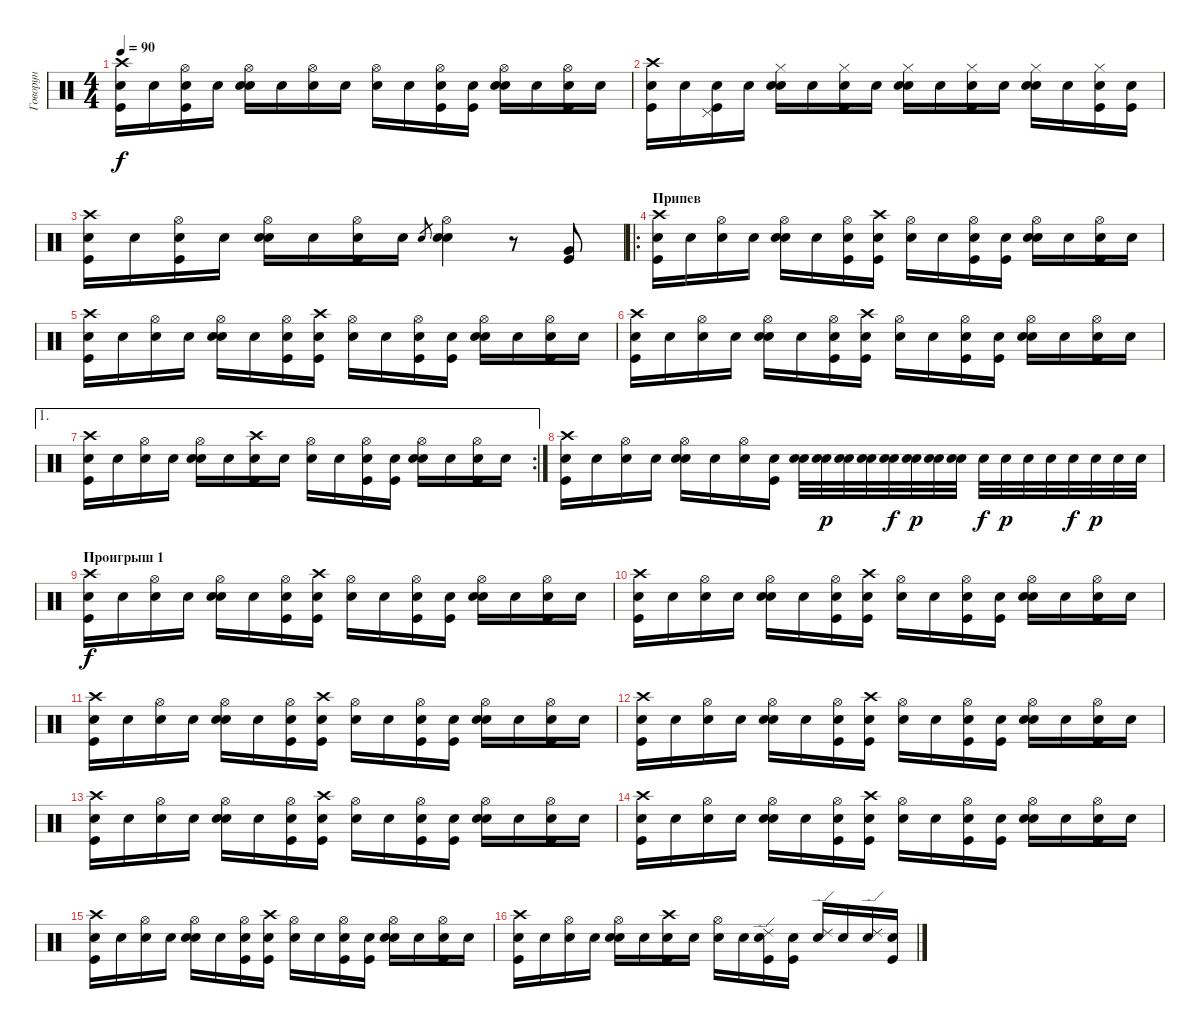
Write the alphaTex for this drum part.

\track ("Говорун" "Говорун") {instrument percussion}
\staff {score}
\articulation defaults
\ts (4 4)
\tempo 90
\clef neutral
\ks c
("Snare (hit)"{x} "Kick (hit)" "Crash high (hit)").16{dy f} "Snare (hit)"{x}.16 ("Snare (hit)"{x} "Kick (hit)" "Hi-Hat (open)").16 "Snare (hit)"{x}.16 ("Snare (hit)"{x} "Snare (hit) 2" "Hi-Hat (open)").16 "Snare (hit)"{x}.16 ("Snare (hit)"{x} "Hi-Hat (open)").16 "Snare (hit)"{x}.16 ("Snare (hit)"{x} "Hi-Hat (open)").16 "Snare (hit)"{x}.16 ("Snare (hit)"{x} "Kick (hit)" "Hi-Hat (open)").16 ("Snare (hit)"{x} "Kick (hit)").16 ("Snare (hit)"{x} "Snare (hit) 2" "Hi-Hat (open)").16 "Snare (hit)"{x}.16 ("Snare (hit)"{x} "Kick (hit)" "Hi-Hat (open)").16 "Snare (hit)"{x}.16 |
("Snare (hit)"{x} "Kick (hit)" "Crash high (hit)").16 "Snare (hit)"{x}.16 ("Snare (hit)"{x} "Kick (hit)" "Pedal Hi-Hat (hit)").16 "Snare (hit)"{x}.16 ("Snare (hit)"{x} "Snare (hit) 2" "Hi-Hat (closed)").16 "Snare (hit)"{x}.16 ("Snare (hit)"{x} "Kick (hit)" "Hi-Hat (closed)").16 "Snare (hit)"{x}.16 ("Snare (hit)"{x} "Snare (hit) 2" "Hi-Hat (closed)").16 "Snare (hit)"{x}.16 ("Snare (hit)"{x} "Kick (hit)" "Hi-Hat (closed)").16 "Snare (hit)"{x}.16 ("Snare (hit)"{x} "Snare (hit) 2" "Hi-Hat (closed)").16 "Snare (hit)"{x}.16 ("Snare (hit)"{x} "Kick (hit)" "Hi-Hat (closed)").16 ("Snare (hit)"{x} "Kick (hit)").16 |
("Snare (hit)"{x} "Kick (hit)" "Crash high (hit)").16 "Snare (hit)"{x}.16 ("Snare (hit)"{x} "Kick (hit)" "Hi-Hat (open)").16 "Snare (hit)"{x}.16 ("Snare (hit)"{x} "Snare (hit) 2" "Hi-Hat (open)").16 "Snare (hit)"{x}.16 ("Snare (hit)"{x} "Kick (hit)" "Hi-Hat (open)").16 "Snare (hit)"{x}.16 "Snare (hit) 2".8{gr} ("Snare (hit)"{x} "Snare (hit) 2" "Hi-Hat (open)").4 r.8 ("Kick (hit)" "Very Low Tom (hit)").8 |
\ro
\section ("" "Припев")
("Snare (hit)"{x} "Kick (hit)" "Crash high (hit)").16 "Snare (hit)"{x}.16 ("Snare (hit)"{x} "Hi-Hat (open)").16 "Snare (hit)"{x}.16 ("Snare (hit)"{x} "Snare (hit) 2" "Hi-Hat (open)").16 "Snare (hit)"{x}.16 ("Snare (hit)"{x} "Kick (hit)" "Hi-Hat (open)").16 ("Snare (hit)"{x} "Kick (hit)" "Crash high (hit)").16 ("Snare (hit)"{x} "Hi-Hat (open)").16 "Snare (hit)"{x}.16 ("Snare (hit)"{x} "Kick (hit)" "Hi-Hat (open)").16 ("Snare (hit)"{x} "Kick (hit)").16 ("Snare (hit)"{x} "Snare (hit) 2" "Hi-Hat (open)").16 "Snare (hit)"{x}.16 ("Snare (hit)"{x} "Kick (hit)" "Hi-Hat (open)").16 "Snare (hit)"{x}.16 |
("Snare (hit)"{x} "Kick (hit)" "Crash high (hit)").16 "Snare (hit)"{x}.16 ("Snare (hit)"{x} "Hi-Hat (open)").16 "Snare (hit)"{x}.16 ("Snare (hit)"{x} "Snare (hit) 2" "Hi-Hat (open)").16 "Snare (hit)"{x}.16 ("Snare (hit)"{x} "Kick (hit)" "Hi-Hat (open)").16 ("Snare (hit)"{x} "Kick (hit)" "Crash high (hit)").16 ("Snare (hit)"{x} "Hi-Hat (open)").16 "Snare (hit)"{x}.16 ("Snare (hit)"{x} "Kick (hit)" "Hi-Hat (open)").16 ("Snare (hit)"{x} "Kick (hit)").16 ("Snare (hit)"{x} "Snare (hit) 2" "Hi-Hat (open)").16 "Snare (hit)"{x}.16 ("Snare (hit)"{x} "Kick (hit)" "Hi-Hat (open)").16 "Snare (hit)"{x}.16 |
("Snare (hit)"{x} "Kick (hit)" "Crash high (hit)").16 "Snare (hit)"{x}.16 ("Snare (hit)"{x} "Hi-Hat (open)").16 "Snare (hit)"{x}.16 ("Snare (hit)"{x} "Snare (hit) 2" "Hi-Hat (open)").16 "Snare (hit)"{x}.16 ("Snare (hit)"{x} "Kick (hit)" "Hi-Hat (open)").16 ("Snare (hit)"{x} "Kick (hit)" "Crash high (hit)").16 ("Snare (hit)"{x} "Hi-Hat (open)").16 "Snare (hit)"{x}.16 ("Snare (hit)"{x} "Kick (hit)" "Hi-Hat (open)").16 ("Snare (hit)"{x} "Kick (hit)").16 ("Snare (hit)"{x} "Snare (hit) 2" "Hi-Hat (open)").16 "Snare (hit)"{x}.16 ("Snare (hit)"{x} "Kick (hit)" "Hi-Hat (open)").16 "Snare (hit)"{x}.16 |
\ae 1
\rc 2
("Snare (hit)"{x} "Kick (hit)" "Crash high (hit)").16 "Snare (hit)"{x}.16 ("Snare (hit)"{x} "Hi-Hat (open)").16 "Snare (hit)"{x}.16 ("Snare (hit)"{x} "Snare (hit) 2" "Hi-Hat (open)").16 "Snare (hit)"{x}.16 ("Snare (hit)"{x} "Crash high (hit)" "Kick (hit)").16 "Snare (hit)"{x}.16 ("Snare (hit)"{x} "Hi-Hat (open)").16 "Snare (hit)"{x}.16 ("Snare (hit)"{x} "Kick (hit)" "Hi-Hat (open)").16 ("Snare (hit)"{x} "Kick (hit)").16 ("Snare (hit)"{x} "Snare (hit) 2" "Hi-Hat (open)").16 "Snare (hit)"{x}.16 ("Snare (hit)"{x} "Kick (hit)" "Hi-Hat (open)").16 "Snare (hit)"{x}.16 |
("Snare (hit)"{x} "Kick (hit)" "Crash high (hit)").16 "Snare (hit)"{x}.16 ("Snare (hit)"{x} "Hi-Hat (open)").16 "Snare (hit)"{x}.16 ("Snare (hit)"{x} "Snare (hit) 2" "Hi-Hat (open)").16 "Snare (hit)"{x}.16 ("Snare (hit)"{x} "Hi-Hat (open)").16 ("Snare (hit)"{x} "Kick (hit)").16 ("Snare (hit)"{x} "Snare (hit) 2").32 ("Snare (hit)"{x} "Snare (hit) 2").32{dy p} ("Snare (hit)"{x} "Snare (hit) 2").32 ("Snare (hit)"{x} "Snare (hit) 2").32 ("Snare (hit)"{x} "Snare (hit) 2").32{dy f} ("Snare (hit)"{x} "Snare (hit) 2").32{dy p} ("Snare (hit)"{x} "Snare (hit) 2").32 ("Snare (hit)"{x} "Snare (hit) 2").32 "Snare (hit) 2".32{dy f} "Snare (hit) 2".32{dy p} "Snare (hit) 2".32 "Snare (hit) 2".32 "Snare (hit) 2".32{dy f} "Snare (hit) 2".32{dy p} "Snare (hit) 2".32 "Snare (hit) 2".32 |
\section ("" "Проигрыш 1")
("Snare (hit)"{x} "Kick (hit)" "Crash high (hit)").16{dy f} "Snare (hit)"{x}.16 ("Snare (hit)"{x} "Hi-Hat (open)").16 "Snare (hit)"{x}.16 ("Snare (hit)"{x} "Snare (hit) 2" "Hi-Hat (open)").16 "Snare (hit)"{x}.16 ("Snare (hit)"{x} "Kick (hit)" "Hi-Hat (open)").16 ("Snare (hit)"{x} "Kick (hit)" "Crash high (hit)").16 ("Snare (hit)"{x} "Hi-Hat (open)").16 "Snare (hit)"{x}.16 ("Snare (hit)"{x} "Kick (hit)" "Hi-Hat (open)").16 ("Snare (hit)"{x} "Kick (hit)").16 ("Snare (hit)"{x} "Snare (hit) 2" "Hi-Hat (open)").16 "Snare (hit)"{x}.16 ("Snare (hit)"{x} "Kick (hit)" "Hi-Hat (open)").16 "Snare (hit)"{x}.16 |
("Snare (hit)"{x} "Kick (hit)" "Crash high (hit)").16 "Snare (hit)"{x}.16 ("Snare (hit)"{x} "Hi-Hat (open)").16 "Snare (hit)"{x}.16 ("Snare (hit)"{x} "Snare (hit) 2" "Hi-Hat (open)").16 "Snare (hit)"{x}.16 ("Snare (hit)"{x} "Kick (hit)" "Hi-Hat (open)").16 ("Snare (hit)"{x} "Kick (hit)" "Crash high (hit)").16 ("Snare (hit)"{x} "Hi-Hat (open)").16 "Snare (hit)"{x}.16 ("Snare (hit)"{x} "Kick (hit)" "Hi-Hat (open)").16 ("Snare (hit)"{x} "Kick (hit)").16 ("Snare (hit)"{x} "Snare (hit) 2" "Hi-Hat (open)").16 "Snare (hit)"{x}.16 ("Snare (hit)"{x} "Kick (hit)" "Hi-Hat (open)").16 "Snare (hit)"{x}.16 |
("Snare (hit)"{x} "Kick (hit)" "Crash high (hit)").16 "Snare (hit)"{x}.16 ("Snare (hit)"{x} "Hi-Hat (open)").16 "Snare (hit)"{x}.16 ("Snare (hit)"{x} "Snare (hit) 2" "Hi-Hat (open)").16 "Snare (hit)"{x}.16 ("Snare (hit)"{x} "Kick (hit)" "Hi-Hat (open)").16 ("Snare (hit)"{x} "Kick (hit)" "Crash high (hit)").16 ("Snare (hit)"{x} "Hi-Hat (open)").16 "Snare (hit)"{x}.16 ("Snare (hit)"{x} "Kick (hit)" "Hi-Hat (open)").16 ("Snare (hit)"{x} "Kick (hit)").16 ("Snare (hit)"{x} "Snare (hit) 2" "Hi-Hat (open)").16 "Snare (hit)"{x}.16 ("Snare (hit)"{x} "Kick (hit)" "Hi-Hat (open)").16 "Snare (hit)"{x}.16 |
("Snare (hit)"{x} "Kick (hit)" "Crash high (hit)").16 "Snare (hit)"{x}.16 ("Snare (hit)"{x} "Hi-Hat (open)").16 "Snare (hit)"{x}.16 ("Snare (hit)"{x} "Snare (hit) 2" "Hi-Hat (open)").16 "Snare (hit)"{x}.16 ("Snare (hit)"{x} "Kick (hit)" "Hi-Hat (open)").16 ("Snare (hit)"{x} "Kick (hit)" "Crash high (hit)").16 ("Snare (hit)"{x} "Hi-Hat (open)").16 "Snare (hit)"{x}.16 ("Snare (hit)"{x} "Kick (hit)" "Hi-Hat (open)").16 ("Snare (hit)"{x} "Kick (hit)").16 ("Snare (hit)"{x} "Snare (hit) 2" "Hi-Hat (open)").16 "Snare (hit)"{x}.16 ("Snare (hit)"{x} "Kick (hit)" "Hi-Hat (open)").16 "Snare (hit)"{x}.16 |
("Snare (hit)"{x} "Kick (hit)" "Crash high (hit)").16 "Snare (hit)"{x}.16 ("Snare (hit)"{x} "Hi-Hat (open)").16 "Snare (hit)"{x}.16 ("Snare (hit)"{x} "Snare (hit) 2" "Hi-Hat (open)").16 "Snare (hit)"{x}.16 ("Snare (hit)"{x} "Kick (hit)" "Hi-Hat (open)").16 ("Snare (hit)"{x} "Kick (hit)" "Crash high (hit)").16 ("Snare (hit)"{x} "Hi-Hat (open)").16 "Snare (hit)"{x}.16 ("Snare (hit)"{x} "Kick (hit)" "Hi-Hat (open)").16 ("Snare (hit)"{x} "Kick (hit)").16 ("Snare (hit)"{x} "Snare (hit) 2" "Hi-Hat (open)").16 "Snare (hit)"{x}.16 ("Snare (hit)"{x} "Kick (hit)" "Hi-Hat (open)").16 "Snare (hit)"{x}.16 |
("Snare (hit)"{x} "Kick (hit)" "Crash high (hit)").16 "Snare (hit)"{x}.16 ("Snare (hit)"{x} "Hi-Hat (open)").16 "Snare (hit)"{x}.16 ("Snare (hit)"{x} "Snare (hit) 2" "Hi-Hat (open)").16 "Snare (hit)"{x}.16 ("Snare (hit)"{x} "Kick (hit)" "Hi-Hat (open)").16 ("Snare (hit)"{x} "Kick (hit)" "Crash high (hit)").16 ("Snare (hit)"{x} "Hi-Hat (open)").16 "Snare (hit)"{x}.16 ("Snare (hit)"{x} "Kick (hit)" "Hi-Hat (open)").16 ("Snare (hit)"{x} "Kick (hit)").16 ("Snare (hit)"{x} "Snare (hit) 2" "Hi-Hat (open)").16 "Snare (hit)"{x}.16 ("Snare (hit)"{x} "Kick (hit)" "Hi-Hat (open)").16 "Snare (hit)"{x}.16 |
("Snare (hit)"{x} "Kick (hit)" "Crash high (hit)").16 "Snare (hit)"{x}.16 ("Snare (hit)"{x} "Hi-Hat (open)").16 "Snare (hit)"{x}.16 ("Snare (hit)"{x} "Snare (hit) 2" "Hi-Hat (open)").16 "Snare (hit)"{x}.16 ("Snare (hit)"{x} "Kick (hit)" "Hi-Hat (open)").16 ("Snare (hit)"{x} "Kick (hit)" "Crash high (hit)").16 ("Snare (hit)"{x} "Hi-Hat (open)").16 "Snare (hit)"{x}.16 ("Snare (hit)"{x} "Kick (hit)" "Hi-Hat (open)").16 ("Snare (hit)"{x} "Kick (hit)").16 ("Snare (hit)"{x} "Snare (hit) 2" "Hi-Hat (open)").16 "Snare (hit)"{x}.16 ("Snare (hit)"{x} "Kick (hit)" "Hi-Hat (open)").16 "Snare (hit)"{x}.16 |
("Snare (hit)"{x} "Kick (hit)" "Crash high (hit)").16 "Snare (hit)"{x}.16 ("Snare (hit)"{x} "Hi-Hat (open)").16 "Snare (hit)"{x}.16 ("Snare (hit)"{x} "Snare (hit) 2" "Hi-Hat (open)").16 "Snare (hit)"{x}.16 ("Snare (hit)"{x} "Kick (hit)" "Crash high (hit)").16 "Snare (hit)"{x}.16 ("Snare (hit)"{x} "Hi-Hat (open)").16 "Snare (hit)"{x}.16 ("Snare (hit)"{x} "Kick (hit)" "Ride (edge) 2").16 ("Snare (hit)"{x} "Kick (hit)").16 ("Snare (hit)"{x} "Ride (edge) 2").16 "Snare (hit)"{x}.16 ("Snare (hit)"{x} "Ride (edge) 2").16 ("Snare (hit)"{x} "Kick (hit)").16
